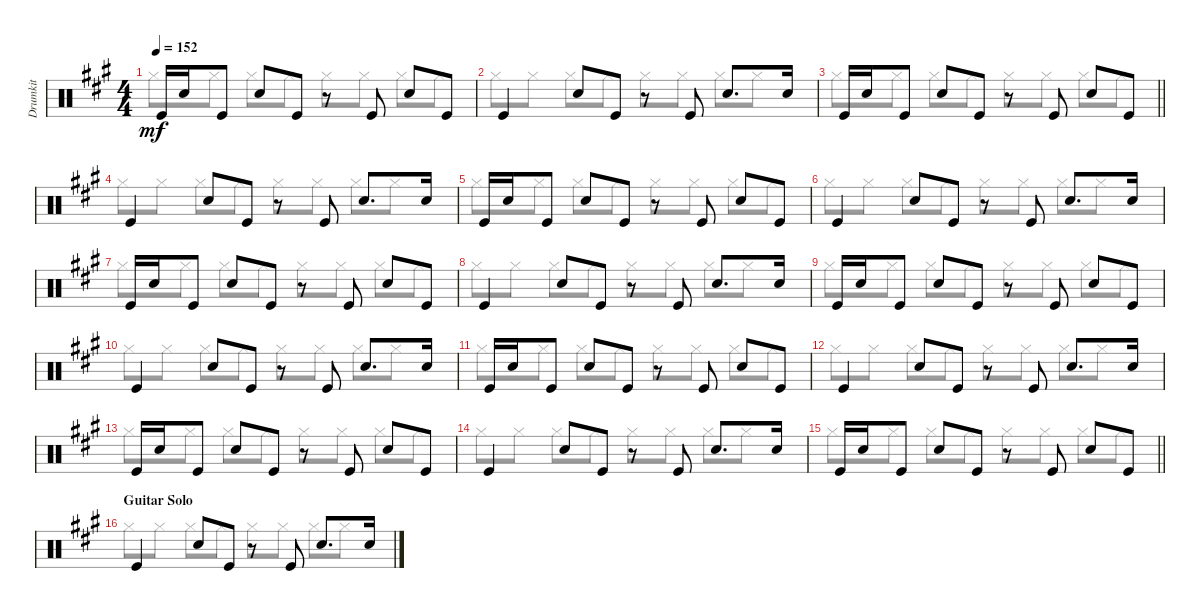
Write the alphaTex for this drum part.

\track ("Drumkit" "Drumkit") {instrument percussion}
\staff {score}
\articulation defaults
\voice
\ts (4 4)
\tempo 152
\clef neutral
\ks a "Kick (hit)".16{dy mf} "Snare (hit) 2".16 "Kick (hit)".8 "Snare (hit) 2".8 "Kick (hit)".8
r.8 "Kick (hit)".8 "Snare (hit) 2".8 "Kick (hit)".8 |
"Kick (hit)".4 "Snare (hit) 2".8 "Kick (hit)".8 r.8 "Kick (hit)".8 "Snare (hit) 2".8{d} "Snare (hit) 2".16 |
\barLineRight lightlight "Kick (hit)".16 "Snare (hit) 2".16 "Kick (hit)".8 "Snare (hit) 2".8 "Kick (hit)".8
r.8 "Kick (hit)".8 "Snare (hit) 2".8 "Kick (hit)".8 |
"Kick (hit)".4 "Snare (hit) 2".8 "Kick (hit)".8 r.8 "Kick (hit)".8 "Snare (hit) 2".8{d} "Snare (hit) 2".16 |
"Kick (hit)".16 "Snare (hit) 2".16 "Kick (hit)".8 "Snare (hit) 2".8 "Kick (hit)".8 r.8 "Kick (hit)".8 "Snare (hit) 2".8 "Kick (hit)".8 |
"Kick (hit)".4 "Snare (hit) 2".8 "Kick (hit)".8 r.8 "Kick (hit)".8 "Snare (hit) 2".8{d} "Snare (hit) 2".16 |
"Kick (hit)".16 "Snare (hit) 2".16 "Kick (hit)".8 "Snare (hit) 2".8 "Kick (hit)".8 r.8 "Kick (hit)".8 "Snare (hit) 2".8 "Kick (hit)".8 |
"Kick (hit)".4 "Snare (hit) 2".8 "Kick (hit)".8 r.8 "Kick (hit)".8 "Snare (hit) 2".8{d} "Snare (hit) 2".16 |
"Kick (hit)".16 "Snare (hit) 2".16 "Kick (hit)".8 "Snare (hit) 2".8 "Kick (hit)".8 r.8 "Kick (hit)".8 "Snare (hit) 2".8 "Kick (hit)".8 |
"Kick (hit)".4 "Snare (hit) 2".8 "Kick (hit)".8 r.8 "Kick (hit)".8 "Snare (hit) 2".8{d} "Snare (hit) 2".16 |
"Kick (hit)".16 "Snare (hit) 2".16 "Kick (hit)".8 "Snare (hit) 2".8 "Kick (hit)".8 r.8 "Kick (hit)".8 "Snare (hit) 2".8 "Kick (hit)".8 |
"Kick (hit)".4 "Snare (hit) 2".8 "Kick (hit)".8 r.8 "Kick (hit)".8 "Snare (hit) 2".8{d} "Snare (hit) 2".16 |
"Kick (hit)".16 "Snare (hit) 2".16 "Kick (hit)".8 "Snare (hit) 2".8 "Kick (hit)".8 r.8 "Kick (hit)".8 "Snare (hit) 2".8 "Kick (hit)".8 |
"Kick (hit)".4 "Snare (hit) 2".8 "Kick (hit)".8 r.8 "Kick (hit)".8 "Snare (hit) 2".8{d} "Snare (hit) 2".16 |
\barLineRight lightlight "Kick (hit)".16 "Snare (hit) 2".16 "Kick (hit)".8 "Snare (hit) 2".8 "Kick (hit)".8
r.8 "Kick (hit)".8 "Snare (hit) 2".8 "Kick (hit)".8 |
\section ("" "Guitar Solo")
"Kick (hit)".4 "Snare (hit) 2".8 "Kick (hit)".8 r.8 "Kick (hit)".8 "Snare (hit) 2".8{d} "Snare (hit) 2".16
\voice
\clef neutral
\ottava regular
\simile none
\ks a "Hi-Hat (closed)".8{dy mf} "Hi-Hat (closed)".8 "Hi-Hat (closed)".8 "Hi-Hat (closed)".8 "Hi-Hat (closed)".8 "Hi-Hat (closed)".8 "Hi-Hat (closed)".8 "Hi-Hat (closed)".8
|
"Hi-Hat (closed)".8 "Hi-Hat (closed)".8 "Hi-Hat (closed)".8 "Hi-Hat (closed)".8 "Hi-Hat (closed)".8 "Hi-Hat (closed)".8 "Hi-Hat (closed)".8 "Hi-Hat (closed)".8 |
\barLineRight lightlight "Hi-Hat (closed)".8 "Hi-Hat (closed)".8 "Hi-Hat (closed)".8 "Hi-Hat (closed)".8 "Hi-Hat (closed)".8 "Hi-Hat (closed)".8 "Hi-Hat (closed)".8 "Hi-Hat (closed)".8
|
"Hi-Hat (closed)".8 "Hi-Hat (closed)".8 "Hi-Hat (closed)".8 "Hi-Hat (closed)".8 "Hi-Hat (closed)".8 "Hi-Hat (closed)".8 "Hi-Hat (closed)".8 "Hi-Hat (closed)".8 |
"Hi-Hat (closed)".8 "Hi-Hat (closed)".8 "Hi-Hat (closed)".8 "Hi-Hat (closed)".8 "Hi-Hat (closed)".8 "Hi-Hat (closed)".8 "Hi-Hat (closed)".8 "Hi-Hat (closed)".8 |
"Hi-Hat (closed)".8 "Hi-Hat (closed)".8 "Hi-Hat (closed)".8 "Hi-Hat (closed)".8 "Hi-Hat (closed)".8 "Hi-Hat (closed)".8 "Hi-Hat (closed)".8 "Hi-Hat (closed)".8 |
"Hi-Hat (closed)".8 "Hi-Hat (closed)".8 "Hi-Hat (closed)".8 "Hi-Hat (closed)".8 "Hi-Hat (closed)".8 "Hi-Hat (closed)".8 "Hi-Hat (closed)".8 "Hi-Hat (closed)".8 |
"Hi-Hat (closed)".8 "Hi-Hat (closed)".8 "Hi-Hat (closed)".8 "Hi-Hat (closed)".8 "Hi-Hat (closed)".8 "Hi-Hat (closed)".8 "Hi-Hat (closed)".8 "Hi-Hat (closed)".8 |
"Hi-Hat (closed)".8 "Hi-Hat (closed)".8 "Hi-Hat (closed)".8 "Hi-Hat (closed)".8 "Hi-Hat (closed)".8 "Hi-Hat (closed)".8 "Hi-Hat (closed)".8 "Hi-Hat (closed)".8 |
"Hi-Hat (closed)".8 "Hi-Hat (closed)".8 "Hi-Hat (closed)".8 "Hi-Hat (closed)".8 "Hi-Hat (closed)".8 "Hi-Hat (closed)".8 "Hi-Hat (closed)".8 "Hi-Hat (closed)".8 |
"Hi-Hat (closed)".8 "Hi-Hat (closed)".8 "Hi-Hat (closed)".8 "Hi-Hat (closed)".8 "Hi-Hat (closed)".8 "Hi-Hat (closed)".8 "Hi-Hat (closed)".8 "Hi-Hat (closed)".8 |
"Hi-Hat (closed)".8 "Hi-Hat (closed)".8 "Hi-Hat (closed)".8 "Hi-Hat (closed)".8 "Hi-Hat (closed)".8 "Hi-Hat (closed)".8 "Hi-Hat (closed)".8 "Hi-Hat (closed)".8 |
"Hi-Hat (closed)".8 "Hi-Hat (closed)".8 "Hi-Hat (closed)".8 "Hi-Hat (closed)".8 "Hi-Hat (closed)".8 "Hi-Hat (closed)".8 "Hi-Hat (closed)".8 "Hi-Hat (closed)".8 |
"Hi-Hat (closed)".8 "Hi-Hat (closed)".8 "Hi-Hat (closed)".8 "Hi-Hat (closed)".8 "Hi-Hat (closed)".8 "Hi-Hat (closed)".8 "Hi-Hat (closed)".8 "Hi-Hat (closed)".8 |
\barLineRight lightlight "Hi-Hat (closed)".8 "Hi-Hat (closed)".8 "Hi-Hat (closed)".8 "Hi-Hat (closed)".8 "Hi-Hat (closed)".8 "Hi-Hat (closed)".8 "Hi-Hat (closed)".8 "Hi-Hat (closed)".8
|
"Hi-Hat (closed)".8 "Hi-Hat (closed)".8 "Hi-Hat (closed)".8 "Hi-Hat (closed)".8 "Hi-Hat (closed)".8 "Hi-Hat (closed)".8 "Hi-Hat (closed)".8 "Hi-Hat (closed)".8
